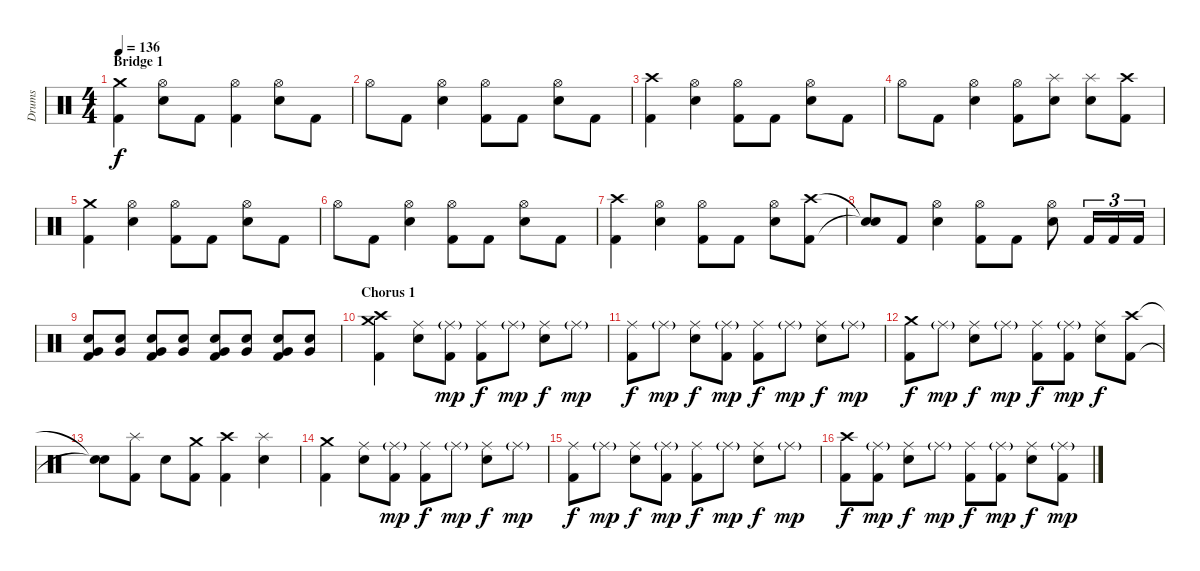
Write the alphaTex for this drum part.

\track ("Drums" "Drums") {instrument percussion}
\staff {score}
\articulation defaults
\ts (4 4)
\section ("" "Bridge 1")
\tempo 136
\clef neutral
\ks c
("Crash medium (hit)" "Kick (hit) 2").4{dy f} ("Hi-Hat (open)" "Snare (hit) 2").8 "Kick (hit) 2".8 ("Hi-Hat (open)" "Kick (hit) 2").4 ("Hi-Hat (open)" "Snare (hit) 2").8 "Kick (hit) 2".8 |
"Hi-Hat (open)".8 "Kick (hit) 2".8 ("Hi-Hat (open)" "Snare (hit) 2").4 ("Hi-Hat (open)" "Kick (hit) 2").8 "Kick (hit) 2".8 ("Hi-Hat (open)" "Snare (hit) 2").8 "Kick (hit) 2".8 |
("Crash high (hit)" "Kick (hit) 2").4 ("Hi-Hat (open)" "Snare (hit) 2").4 ("Hi-Hat (open)" "Kick (hit) 2").8 "Kick (hit) 2".8 ("Hi-Hat (open)" "Snare (hit) 2").8 "Kick (hit) 2".8 |
"Hi-Hat (open)".8 "Kick (hit) 2".8 ("Hi-Hat (open)" "Snare (hit) 2").4 ("Hi-Hat (open)" "Kick (hit) 2").8 ("Splash (hit)" "Snare (hit) 2").8 ("Splash (hit)" "Snare (hit) 2").8 ("Crash high (hit)" "Kick (hit) 2").8 |
("Crash medium (hit)" "Kick (hit) 2").4 ("Hi-Hat (open)" "Snare (hit) 2").4 ("Hi-Hat (open)" "Kick (hit) 2").8 "Kick (hit) 2".8 ("Hi-Hat (open)" "Snare (hit) 2").8 "Kick (hit) 2".8 |
"Hi-Hat (open)".8 "Kick (hit) 2".8 ("Hi-Hat (open)" "Snare (hit) 2").4 ("Hi-Hat (open)" "Kick (hit) 2").8 "Kick (hit) 2".8 ("Hi-Hat (open)" "Snare (hit) 2").8 "Kick (hit) 2".8 |
("Crash high (hit)" "Kick (hit) 2").4 ("Hi-Hat (open)" "Snare (hit) 2").4 ("Hi-Hat (open)" "Kick (hit) 2").8 "Kick (hit) 2".8 ("Hi-Hat (open)" "Snare (hit) 2").8 ("Crash high (hit)" "Kick (hit) 2").8 |
("Snare (hit)"{t} "Snare (hit)"{t}).8 "Kick (hit) 2".8 ("Hi-Hat (open)" "Snare (hit) 2").4 ("Hi-Hat (open)" "Kick (hit) 2").8 "Kick (hit) 2".8 ("Hi-Hat (open)" "Snare (hit) 2").8 "Kick (hit) 2".16{tu (3 2)} "Kick (hit) 2".16{tu (3 2)} "Kick (hit) 2".16{tu (3 2)} |
("Very Low Tom (hit)" "Snare (hit) 2" "Kick (hit) 2").8 ("Very Low Tom (hit)" "Snare (hit) 2").8 ("Very Low Tom (hit)" "Snare (hit) 2" "Kick (hit) 2").8 ("Very Low Tom (hit)" "Snare (hit) 2").8 ("Very Low Tom (hit)" "Snare (hit) 2" "Kick (hit) 2").8 ("Very Low Tom (hit)" "Snare (hit) 2").8 ("Very Low Tom (hit)" "Snare (hit) 2" "Kick (hit) 2").8 ("Very Low Tom (hit)" "Snare (hit) 2").8 |
\section ("" "Chorus 1")
("Crash medium (hit)" "Crash high (hit)" "Kick (hit) 2").4 ("Ride (middle)" "Snare (hit) 2").8 ("Ride (middle)"{g} "Kick (hit) 2").8{dy mp} ("Ride (middle)" "Kick (hit) 2").8{dy f} "Ride (middle)"{g}.8{dy mp} ("Ride (middle)" "Snare (hit) 2").8{dy f} "Ride (middle)"{g}.8{dy mp} |
("Ride (middle)" "Kick (hit) 2").8{dy f} "Ride (middle)"{g}.8{dy mp} ("Ride (middle)" "Snare (hit) 2").8{dy f} ("Ride (middle)"{g} "Kick (hit) 2").8{dy mp} ("Ride (middle)" "Kick (hit) 2").8{dy f} "Ride (middle)"{g}.8{dy mp} ("Ride (middle)" "Snare (hit) 2").8{dy f} "Ride (middle)"{g}.8{dy mp} |
("Crash medium (hit)" "Kick (hit) 2").8{dy f} "Ride (middle)"{g}.8{dy mp} ("Ride (middle)" "Snare (hit) 2").8{dy f} "Ride (middle)"{g}.8{dy mp} ("Ride (middle)" "Kick (hit) 2").8{dy f} ("Ride (middle)"{g} "Kick (hit) 2").8{dy mp} ("Ride (middle)" "Snare (hit) 2").8{dy f} ("Crash high (hit)" "Kick (hit) 2").8 |
("Snare (hit)"{t} "Snare (hit)"{t}).8 ("Splash (hit)" "Kick (hit) 2").8 "Snare (hit) 2".8 ("Crash medium (hit)" "Kick (hit) 2").8 ("Crash high (hit)" "Kick (hit) 2").4 ("Splash (hit)" "Snare (hit) 2").4 |
("Crash medium (hit)" "Kick (hit) 2").4 ("Ride (middle)" "Snare (hit) 2").8 ("Ride (middle)"{g} "Kick (hit) 2").8{dy mp} ("Ride (middle)" "Kick (hit) 2").8{dy f} "Ride (middle)"{g}.8{dy mp} ("Ride (middle)" "Snare (hit) 2").8{dy f} "Ride (middle)"{g}.8{dy mp} |
("Ride (middle)" "Kick (hit) 2").8{dy f} "Ride (middle)"{g}.8{dy mp} ("Ride (middle)" "Snare (hit) 2").8{dy f} ("Ride (middle)"{g} "Kick (hit) 2").8{dy mp} ("Ride (middle)" "Kick (hit) 2").8{dy f} "Ride (middle)"{g}.8{dy mp} ("Ride (middle)" "Snare (hit) 2").8{dy f} "Ride (middle)"{g}.8{dy mp} |
("Crash high (hit)" "Kick (hit) 2").8{dy f} ("Ride (middle)"{g} "Kick (hit) 2").8{dy mp} ("Ride (middle)" "Snare (hit) 2").8{dy f} "Ride (middle)"{g}.8{dy mp} ("Ride (middle)" "Kick (hit) 2").8{dy f} ("Ride (middle)"{g} "Kick (hit) 2").8{dy mp} ("Ride (middle)" "Snare (hit) 2").8{dy f} ("Ride (middle)"{g} "Kick (hit) 2").8{dy mp}
